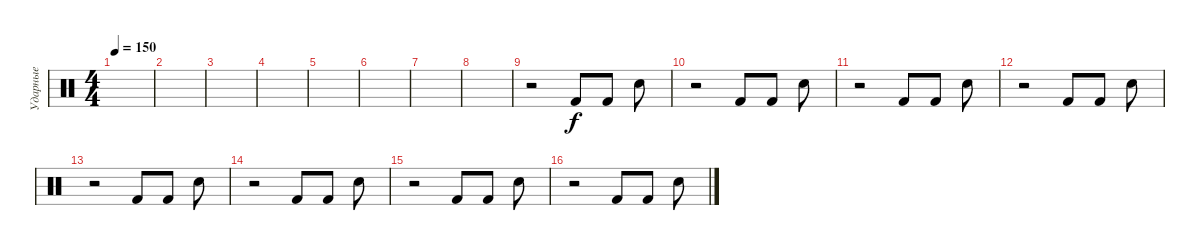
\track ("Ударные" "Ударные") {instrument percussion}
\staff {score}
\articulation defaults
\ts (4 4)
\tempo 150
\clef neutral
\ks c
|
|
|
|
|
|
|
|
r.2 "Kick (hit) 2".8 "Kick (hit) 2".8 "Snare (hit) 2".8 |
r.2 "Kick (hit) 2".8 "Kick (hit) 2".8 "Snare (hit) 2".8 |
r.2 "Kick (hit) 2".8 "Kick (hit) 2".8 "Snare (hit) 2".8 |
r.2 "Kick (hit) 2".8 "Kick (hit) 2".8 "Snare (hit) 2".8 |
r.2 "Kick (hit) 2".8 "Kick (hit) 2".8 "Snare (hit) 2".8 |
r.2 "Kick (hit) 2".8 "Kick (hit) 2".8 "Snare (hit) 2".8 |
r.2 "Kick (hit) 2".8 "Kick (hit) 2".8 "Snare (hit) 2".8 |
r.2 "Kick (hit) 2".8 "Kick (hit) 2".8 "Snare (hit) 2".8
